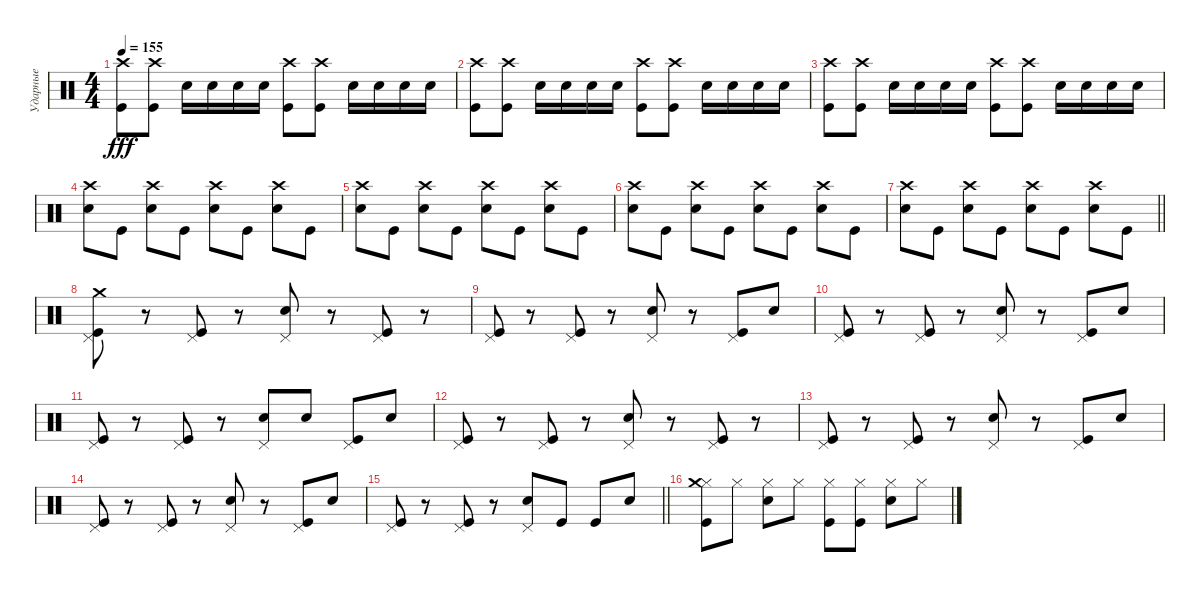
\track ("Ударные" "Ударные") {instrument percussion}
\staff {score}
\articulation defaults
\ts (4 4)
\tempo 155
\clef neutral
\ks c
("Crash high (hit)" "Kick (hit)").8{dy fff} ("Crash high (hit)" "Kick (hit)").8 "Electric Snare (hit)".16 "Electric Snare (hit)".16 "Electric Snare (hit)".16 "Electric Snare (hit)".16 ("Crash high (hit)" "Kick (hit)").8 ("Crash high (hit)" "Kick (hit)").8 "Electric Snare (hit)".16 "Electric Snare (hit)".16 "Electric Snare (hit)".16 "Electric Snare (hit)".16 |
("Crash high (hit)" "Kick (hit)").8 ("Crash high (hit)" "Kick (hit)").8 "Electric Snare (hit)".16 "Electric Snare (hit)".16 "Electric Snare (hit)".16 "Electric Snare (hit)".16 ("Crash high (hit)" "Kick (hit)").8 ("Crash high (hit)" "Kick (hit)").8 "Electric Snare (hit)".16 "Electric Snare (hit)".16 "Electric Snare (hit)".16 "Electric Snare (hit)".16 |
("Crash high (hit)" "Kick (hit)").8 ("Crash high (hit)" "Kick (hit)").8 "Electric Snare (hit)".16 "Electric Snare (hit)".16 "Electric Snare (hit)".16 "Electric Snare (hit)".16 ("Crash high (hit)" "Kick (hit)").8 ("Crash high (hit)" "Kick (hit)").8 "Electric Snare (hit)".16 "Electric Snare (hit)".16 "Electric Snare (hit)".16 "Electric Snare (hit)".16 |
("Crash high (hit)" "Electric Snare (hit)").8 "Kick (hit)".8 ("Crash high (hit)" "Electric Snare (hit)").8 "Kick (hit)".8 ("Crash high (hit)" "Electric Snare (hit)").8 "Kick (hit)".8 ("Crash high (hit)" "Electric Snare (hit)").8 "Kick (hit)".8 |
("Crash high (hit)" "Electric Snare (hit)").8 "Kick (hit)".8 ("Crash high (hit)" "Electric Snare (hit)").8 "Kick (hit)".8 ("Crash high (hit)" "Electric Snare (hit)").8 "Kick (hit)".8 ("Crash high (hit)" "Electric Snare (hit)").8 "Kick (hit)".8 |
("Crash high (hit)" "Electric Snare (hit)").8 "Kick (hit)".8 ("Crash high (hit)" "Electric Snare (hit)").8 "Kick (hit)".8 ("Crash high (hit)" "Electric Snare (hit)").8 "Kick (hit)".8 ("Crash high (hit)" "Electric Snare (hit)").8 "Kick (hit)".8 |
\barLineRight lightlight
("Crash high (hit)" "Electric Snare (hit)").8 "Kick (hit)".8 ("Crash high (hit)" "Electric Snare (hit)").8 "Kick (hit)".8 ("Crash high (hit)" "Electric Snare (hit)").8 "Kick (hit)".8 ("Crash high (hit)" "Electric Snare (hit)").8 "Kick (hit)".8 |
\section ("" " ")
("Pedal Hi-Hat (hit)" "Kick (hit)" "Crash medium (hit)").8 r.8 ("Pedal Hi-Hat (hit)" "Kick (hit)").8 r.8 ("Pedal Hi-Hat (hit)" "Electric Snare (hit)").8 r.8 ("Pedal Hi-Hat (hit)" "Kick (hit)").8 r.8 |
("Pedal Hi-Hat (hit)" "Kick (hit)").8 r.8 ("Pedal Hi-Hat (hit)" "Kick (hit)").8 r.8 ("Pedal Hi-Hat (hit)" "Electric Snare (hit)").8 r.8 ("Pedal Hi-Hat (hit)" "Kick (hit)").8 "Electric Snare (hit)".8 |
("Pedal Hi-Hat (hit)" "Kick (hit)").8 r.8 ("Pedal Hi-Hat (hit)" "Kick (hit)").8 r.8 ("Pedal Hi-Hat (hit)" "Electric Snare (hit)").8 r.8 ("Pedal Hi-Hat (hit)" "Kick (hit)").8 "Electric Snare (hit)".8 |
("Pedal Hi-Hat (hit)" "Kick (hit)").8 r.8 ("Pedal Hi-Hat (hit)" "Kick (hit)").8 r.8 ("Pedal Hi-Hat (hit)" "Electric Snare (hit)").8 "Electric Snare (hit)".8 ("Pedal Hi-Hat (hit)" "Kick (hit)").8 "Electric Snare (hit)".8 |
("Pedal Hi-Hat (hit)" "Kick (hit)").8 r.8 ("Pedal Hi-Hat (hit)" "Kick (hit)").8 r.8 ("Pedal Hi-Hat (hit)" "Electric Snare (hit)").8 r.8 ("Pedal Hi-Hat (hit)" "Kick (hit)").8 r.8 |
("Pedal Hi-Hat (hit)" "Kick (hit)").8 r.8 ("Pedal Hi-Hat (hit)" "Kick (hit)").8 r.8 ("Pedal Hi-Hat (hit)" "Electric Snare (hit)").8 r.8 ("Pedal Hi-Hat (hit)" "Kick (hit)").8 "Electric Snare (hit)".8 |
("Pedal Hi-Hat (hit)" "Kick (hit)").8 r.8 ("Pedal Hi-Hat (hit)" "Kick (hit)").8 r.8 ("Pedal Hi-Hat (hit)" "Electric Snare (hit)").8 r.8 ("Pedal Hi-Hat (hit)" "Kick (hit)").8 "Electric Snare (hit)".8 |
\barLineRight lightlight
("Pedal Hi-Hat (hit)" "Kick (hit)").8 r.8 ("Pedal Hi-Hat (hit)" "Kick (hit)").8 r.8 ("Pedal Hi-Hat (hit)" "Electric Snare (hit)").8 "Kick (hit)".8 "Kick (hit)".8 "Electric Snare (hit)".8 |
\section ("" " ")
("Hi-Hat (closed)" "Kick (hit)" "Crash medium (hit)").8 "Hi-Hat (closed)".8 ("Hi-Hat (closed)" "Electric Snare (hit)").8 "Hi-Hat (closed)".8 ("Hi-Hat (closed)" "Kick (hit)").8 ("Hi-Hat (closed)" "Kick (hit)").8 ("Hi-Hat (closed)" "Electric Snare (hit)").8 "Hi-Hat (closed)".8
